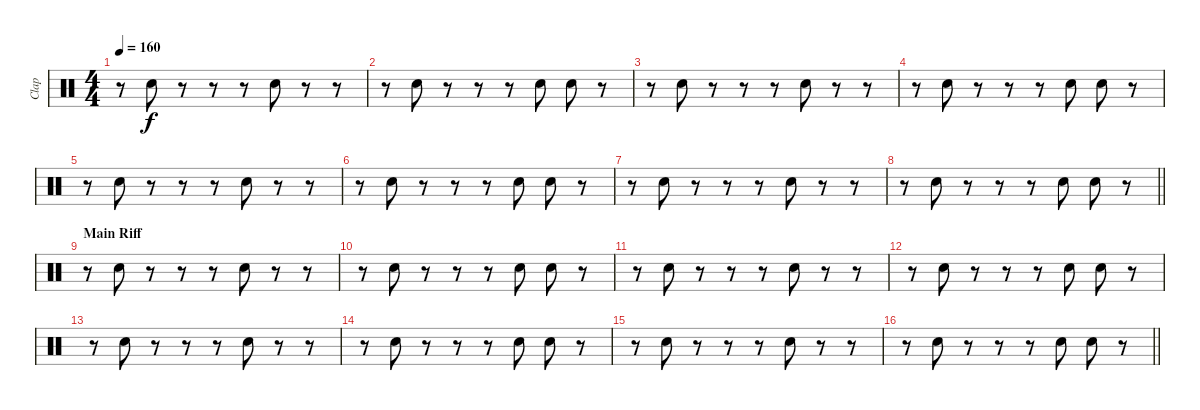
\track ("Clap" "Clap") {instrument percussion}
\staff {score}
\articulation defaults
\ts (4 4)
\tempo 160
\clef neutral
\ks c
r.8{dy f} "Hand Clap (hit)".8 r.8 r.8 r.8 "Hand Clap (hit)".8 r.8 r.8 |
r.8 "Hand Clap (hit)".8 r.8 r.8 r.8 "Hand Clap (hit)".8 "Hand Clap (hit)".8 r.8 |
r.8 "Hand Clap (hit)".8 r.8 r.8 r.8 "Hand Clap (hit)".8 r.8 r.8 |
r.8 "Hand Clap (hit)".8 r.8 r.8 r.8 "Hand Clap (hit)".8 "Hand Clap (hit)".8 r.8 |
r.8 "Hand Clap (hit)".8 r.8 r.8 r.8 "Hand Clap (hit)".8 r.8 r.8 |
r.8 "Hand Clap (hit)".8 r.8 r.8 r.8 "Hand Clap (hit)".8 "Hand Clap (hit)".8 r.8 |
r.8 "Hand Clap (hit)".8 r.8 r.8 r.8 "Hand Clap (hit)".8 r.8 r.8 |
\barLineRight lightlight
r.8 "Hand Clap (hit)".8 r.8 r.8 r.8 "Hand Clap (hit)".8 "Hand Clap (hit)".8 r.8 |
\section ("" "Main Riff")
r.8 "Hand Clap (hit)".8 r.8 r.8 r.8 "Hand Clap (hit)".8 r.8 r.8 |
r.8 "Hand Clap (hit)".8 r.8 r.8 r.8 "Hand Clap (hit)".8 "Hand Clap (hit)".8 r.8 |
r.8 "Hand Clap (hit)".8 r.8 r.8 r.8 "Hand Clap (hit)".8 r.8 r.8 |
r.8 "Hand Clap (hit)".8 r.8 r.8 r.8 "Hand Clap (hit)".8 "Hand Clap (hit)".8 r.8 |
r.8 "Hand Clap (hit)".8 r.8 r.8 r.8 "Hand Clap (hit)".8 r.8 r.8 |
r.8 "Hand Clap (hit)".8 r.8 r.8 r.8 "Hand Clap (hit)".8 "Hand Clap (hit)".8 r.8 |
r.8 "Hand Clap (hit)".8 r.8 r.8 r.8 "Hand Clap (hit)".8 r.8 r.8 |
\barLineRight lightlight
r.8 "Hand Clap (hit)".8 r.8 r.8 r.8 "Hand Clap (hit)".8 "Hand Clap (hit)".8 r.8
